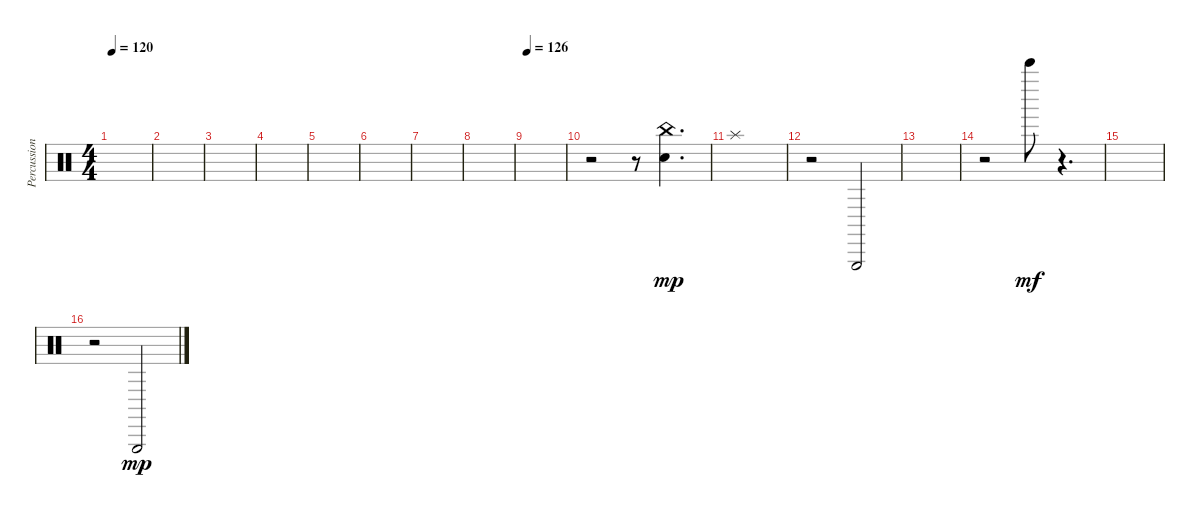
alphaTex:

\track ("Percussion" "Percussion") {instrument percussion}
\staff {score}
\articulation defaults
\ts (4 4)
\tempo 120
\clef neutral
\ks c
|
|
|
|
|
|
|
|
\tempo 126
|
r.2 r.8 ("China (hit)" "Snare (hit)").4{d dy mp} |
"Splash (hit)".1 |
r.2 "Triangle (hit)".2 |
|
r.2 "Bell Tree (hit)".8{dy mf} r.4{d} |
|
r.2 "Triangle (hit)".2{dy mp}
